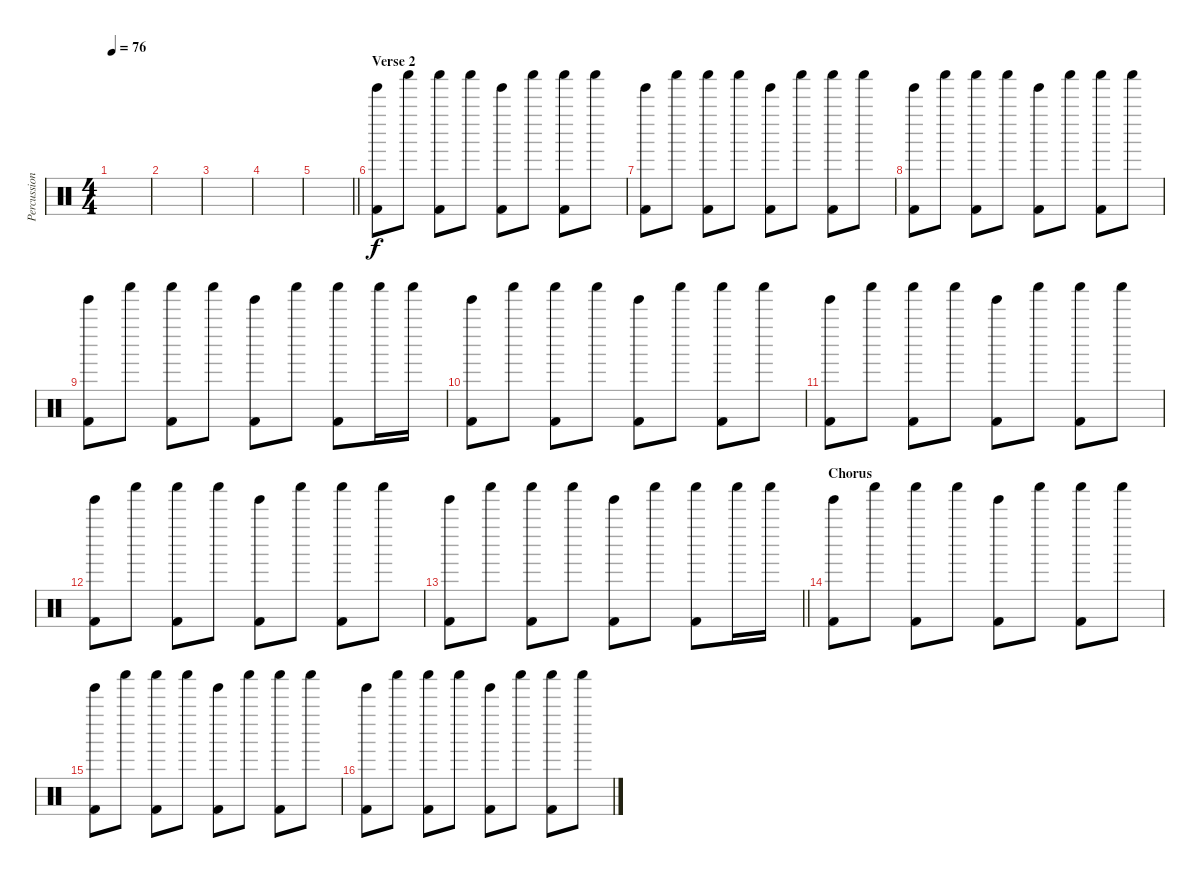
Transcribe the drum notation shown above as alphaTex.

\track ("Percussion" "Percussion") {instrument percussion}
\staff {score}
\articulation defaults
\ts (4 4)
\tempo 76
\clef neutral
\ks c
|
|
|
|
\barLineRight lightlight
|
\section ("" "Verse 2")
("Tinkle Bell (hit)" "Kick (hit) 2").8 "Shaker (hit)".8 ("Shaker (hit)" "Kick (hit) 2").8 "Shaker (hit)".8 ("Tinkle Bell (hit)" "Kick (hit) 2").8 "Shaker (hit)".8 ("Shaker (hit)" "Kick (hit) 2").8 "Shaker (hit)".8 |
("Tinkle Bell (hit)" "Kick (hit) 2").8 "Shaker (hit)".8 ("Shaker (hit)" "Kick (hit) 2").8 "Shaker (hit)".8 ("Tinkle Bell (hit)" "Kick (hit) 2").8 "Shaker (hit)".8 ("Shaker (hit)" "Kick (hit) 2").8 "Shaker (hit)".8 |
("Tinkle Bell (hit)" "Kick (hit) 2").8 "Shaker (hit)".8 ("Shaker (hit)" "Kick (hit) 2").8 "Shaker (hit)".8 ("Tinkle Bell (hit)" "Kick (hit) 2").8 "Shaker (hit)".8 ("Shaker (hit)" "Kick (hit) 2").8 "Shaker (hit)".8 |
("Tinkle Bell (hit)" "Kick (hit) 2").8 "Shaker (hit)".8 ("Shaker (hit)" "Kick (hit) 2").8 "Shaker (hit)".8 ("Tinkle Bell (hit)" "Kick (hit) 2").8 "Shaker (hit)".8 ("Shaker (hit)" "Kick (hit) 2").8 "Shaker (hit)".16 "Shaker (hit)".16 |
("Tinkle Bell (hit)" "Kick (hit) 2").8 "Shaker (hit)".8 ("Shaker (hit)" "Kick (hit) 2").8 "Shaker (hit)".8 ("Tinkle Bell (hit)" "Kick (hit) 2").8 "Shaker (hit)".8 ("Shaker (hit)" "Kick (hit) 2").8 "Shaker (hit)".8 |
("Tinkle Bell (hit)" "Kick (hit) 2").8 "Shaker (hit)".8 ("Shaker (hit)" "Kick (hit) 2").8 "Shaker (hit)".8 ("Tinkle Bell (hit)" "Kick (hit) 2").8 "Shaker (hit)".8 ("Shaker (hit)" "Kick (hit) 2").8 "Shaker (hit)".8 |
("Tinkle Bell (hit)" "Kick (hit) 2").8 "Shaker (hit)".8 ("Shaker (hit)" "Kick (hit) 2").8 "Shaker (hit)".8 ("Tinkle Bell (hit)" "Kick (hit) 2").8 "Shaker (hit)".8 ("Shaker (hit)" "Kick (hit) 2").8 "Shaker (hit)".8 |
\barLineRight lightlight
("Tinkle Bell (hit)" "Kick (hit) 2").8 "Shaker (hit)".8 ("Shaker (hit)" "Kick (hit) 2").8 "Shaker (hit)".8 ("Tinkle Bell (hit)" "Kick (hit) 2").8 "Shaker (hit)".8 ("Shaker (hit)" "Kick (hit) 2").8 "Shaker (hit)".16 "Shaker (hit)".16 |
\section ("" "Chorus")
("Tinkle Bell (hit)" "Kick (hit) 2").8 "Shaker (hit)".8 ("Shaker (hit)" "Kick (hit) 2").8 "Shaker (hit)".8 ("Tinkle Bell (hit)" "Kick (hit) 2").8 "Shaker (hit)".8 ("Shaker (hit)" "Kick (hit) 2").8 "Shaker (hit)".8 |
("Tinkle Bell (hit)" "Kick (hit) 2").8 "Shaker (hit)".8 ("Shaker (hit)" "Kick (hit) 2").8 "Shaker (hit)".8 ("Tinkle Bell (hit)" "Kick (hit) 2").8 "Shaker (hit)".8 ("Shaker (hit)" "Kick (hit) 2").8 "Shaker (hit)".8 |
("Tinkle Bell (hit)" "Kick (hit) 2").8 "Shaker (hit)".8 ("Shaker (hit)" "Kick (hit) 2").8 "Shaker (hit)".8 ("Tinkle Bell (hit)" "Kick (hit) 2").8 "Shaker (hit)".8 ("Shaker (hit)" "Kick (hit) 2").8 "Shaker (hit)".8
